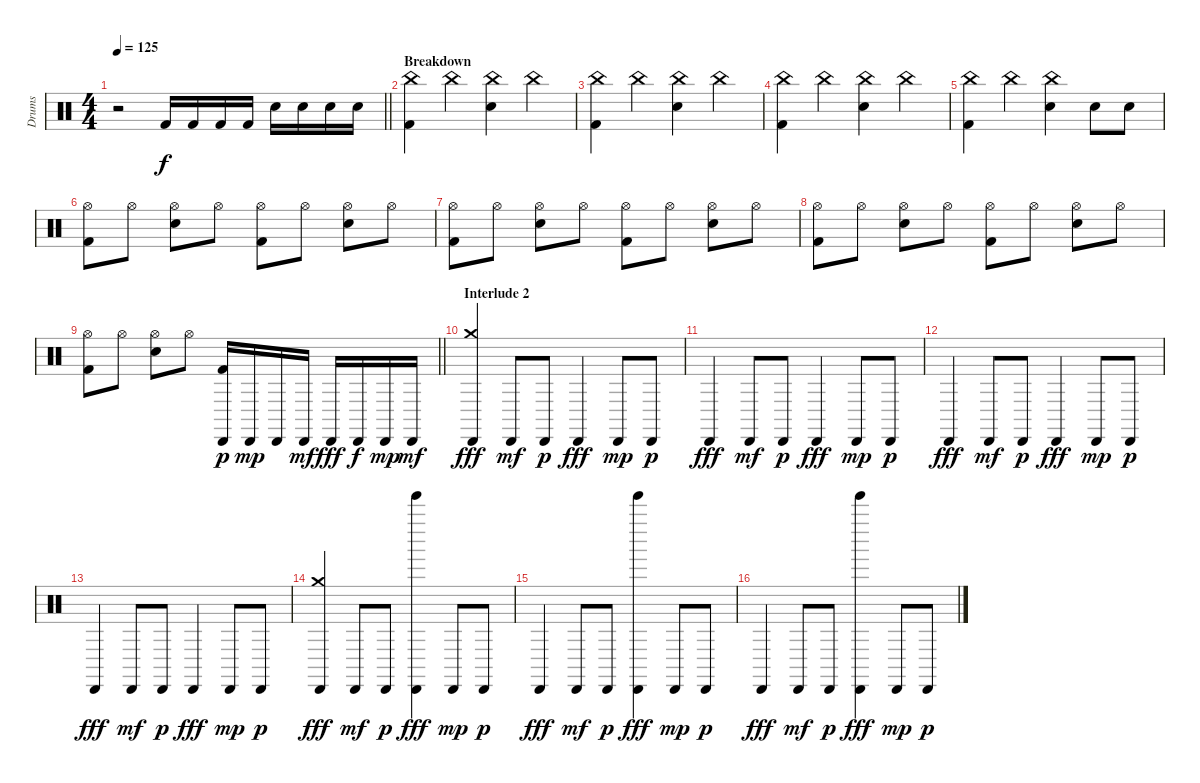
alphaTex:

\track ("Drums" "Drums") {instrument percussion}
\staff {score}
\articulation defaults
\ts (4 4)
\tempo 125
\clef neutral
\barLineRight lightlight
\ks c
r.2{dy f} "Kick (hit) 2".16 "Kick (hit) 2".16 "Kick (hit) 2".16 "Kick (hit) 2".16 "Electric Snare (hit)".16 "Electric Snare (hit)".16 "Electric Snare (hit)".16 "Electric Snare (hit)".16 |
\section ("" "Breakdown")
("China (hit)" "Kick (hit) 2").4 "China (hit)".4 ("China (hit)" "Electric Snare (hit)").4 "China (hit)".4 |
("China (hit)" "Kick (hit) 2").4 "China (hit)".4 ("China (hit)" "Electric Snare (hit)").4 "China (hit)".4 |
("China (hit)" "Kick (hit) 2").4 "China (hit)".4 ("China (hit)" "Electric Snare (hit)").4 "China (hit)".4 |
("China (hit)" "Kick (hit) 2").4 "China (hit)".4 ("China (hit)" "Electric Snare (hit)").4 "Electric Snare (hit)".8 "Electric Snare (hit)".8 |
("Hi-Hat (open)" "Kick (hit) 2").8 "Hi-Hat (open)".8 ("Hi-Hat (open)" "Electric Snare (hit)").8 "Hi-Hat (open)".8 ("Hi-Hat (open)" "Kick (hit) 2").8 "Hi-Hat (open)".8 ("Hi-Hat (open)" "Electric Snare (hit)").8 "Hi-Hat (open)".8 |
("Hi-Hat (open)" "Kick (hit) 2").8 "Hi-Hat (open)".8 ("Hi-Hat (open)" "Electric Snare (hit)").8 "Hi-Hat (open)".8 ("Hi-Hat (open)" "Kick (hit) 2").8 "Hi-Hat (open)".8 ("Hi-Hat (open)" "Electric Snare (hit)").8 "Hi-Hat (open)".8 |
("Hi-Hat (open)" "Kick (hit) 2").8 "Hi-Hat (open)".8 ("Hi-Hat (open)" "Electric Snare (hit)").8 "Hi-Hat (open)".8 ("Hi-Hat (open)" "Kick (hit) 2").8 "Hi-Hat (open)".8 ("Hi-Hat (open)" "Electric Snare (hit)").8 "Hi-Hat (open)".8 |
\barLineRight lightlight
("Hi-Hat (open)" "Kick (hit) 2").8 "Hi-Hat (open)".8 ("Hi-Hat (open)" "Electric Snare (hit)").8 "Hi-Hat (open)".8 ("Cabasa (hit)" "Kick (hit) 2").16{dy p} "Cabasa (hit)".16{dy mp} "Cabasa (hit)".16 "Cabasa (hit)".16{dy mf} "Cabasa (hit)".16{dy fff} "Cabasa (hit)".16{dy f} "Cabasa (hit)".16{dy mp} "Cabasa (hit)".16{dy mf} |
\section ("" "Interlude 2")
("Crash medium (hit)" "Cabasa (hit)").4{dy fff} "Cabasa (hit)".8{dy mf} "Cabasa (hit)".8{dy p} "Cabasa (hit)".4{dy fff} "Cabasa (hit)".8{dy mp} "Cabasa (hit)".8{dy p} |
"Cabasa (hit)".4{dy fff} "Cabasa (hit)".8{dy mf} "Cabasa (hit)".8{dy p} "Cabasa (hit)".4{dy fff} "Cabasa (hit)".8{dy mp} "Cabasa (hit)".8{dy p} |
"Cabasa (hit)".4{dy fff} "Cabasa (hit)".8{dy mf} "Cabasa (hit)".8{dy p} "Cabasa (hit)".4{dy fff} "Cabasa (hit)".8{dy mp} "Cabasa (hit)".8{dy p} |
"Cabasa (hit)".4{dy fff} "Cabasa (hit)".8{dy mf} "Cabasa (hit)".8{dy p} "Cabasa (hit)".4{dy fff} "Cabasa (hit)".8{dy mp} "Cabasa (hit)".8{dy p} |
("Crash medium (hit)" "Cabasa (hit)").4{dy fff} "Cabasa (hit)".8{dy mf} "Cabasa (hit)".8{dy p} ("Tinkle Bell (hit)" "Cabasa (hit)").4{dy fff} "Cabasa (hit)".8{dy mp} "Cabasa (hit)".8{dy p} |
"Cabasa (hit)".4{dy fff} "Cabasa (hit)".8{dy mf} "Cabasa (hit)".8{dy p} ("Tinkle Bell (hit)" "Cabasa (hit)").4{dy fff} "Cabasa (hit)".8{dy mp} "Cabasa (hit)".8{dy p} |
"Cabasa (hit)".4{dy fff} "Cabasa (hit)".8{dy mf} "Cabasa (hit)".8{dy p} ("Tinkle Bell (hit)" "Cabasa (hit)").4{dy fff} "Cabasa (hit)".8{dy mp} "Cabasa (hit)".8{dy p}
